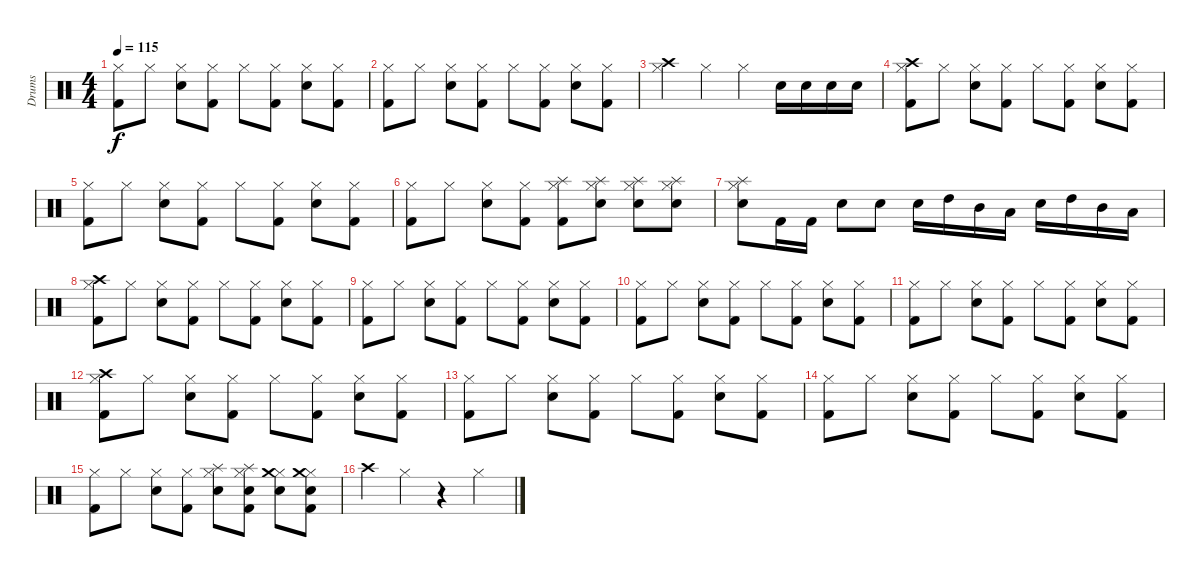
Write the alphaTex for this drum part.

\track ("Drums" "Drums") {instrument percussion}
\staff {score}
\articulation defaults
\ts (4 4)
\tempo 115
\clef neutral
\ks c
("Hi-Hat (closed)" "Kick (hit) 2").8{dy f} "Hi-Hat (closed)".8 ("Hi-Hat (closed)" "Snare (hit) 2").8 ("Hi-Hat (closed)" "Kick (hit) 2").8 "Hi-Hat (closed)".8 ("Hi-Hat (closed)" "Kick (hit) 2").8 ("Hi-Hat (closed)" "Snare (hit) 2").8 ("Hi-Hat (closed)" "Kick (hit) 2").8 |
("Hi-Hat (closed)" "Kick (hit) 2").8 "Hi-Hat (closed)".8 ("Hi-Hat (closed)" "Snare (hit) 2").8 ("Hi-Hat (closed)" "Kick (hit) 2").8 "Hi-Hat (closed)".8 ("Hi-Hat (closed)" "Kick (hit) 2").8 ("Hi-Hat (closed)" "Snare (hit) 2").8 ("Hi-Hat (closed)" "Kick (hit) 2").8 |
("Crash high (hit)" "Hi-Hat (closed)").4 "Hi-Hat (closed)".4 "Hi-Hat (closed)".4 "Snare (hit) 2".16 "Snare (hit) 2".16 "Snare (hit) 2".16 "Snare (hit) 2".16 |
("Hi-Hat (closed)" "Crash high (hit)" "Kick (hit) 2").8 "Hi-Hat (closed)".8 ("Hi-Hat (closed)" "Snare (hit) 2").8 ("Hi-Hat (closed)" "Kick (hit) 2").8 "Hi-Hat (closed)".8 ("Hi-Hat (closed)" "Kick (hit) 2").8 ("Hi-Hat (closed)" "Snare (hit) 2").8 ("Hi-Hat (closed)" "Kick (hit) 2").8 |
("Hi-Hat (closed)" "Kick (hit) 2").8 "Hi-Hat (closed)".8 ("Hi-Hat (closed)" "Snare (hit) 2").8 ("Hi-Hat (closed)" "Kick (hit) 2").8 "Hi-Hat (closed)".8 ("Hi-Hat (closed)" "Kick (hit) 2").8 ("Hi-Hat (closed)" "Snare (hit) 2").8 ("Hi-Hat (closed)" "Kick (hit) 2").8 |
("Hi-Hat (closed)" "Kick (hit) 2").8 "Hi-Hat (closed)".8 ("Hi-Hat (closed)" "Snare (hit) 2").8 ("Hi-Hat (closed)" "Kick (hit) 2").8 ("Hi-Hat (closed)" "Splash (hit)" "Kick (hit) 2").8 ("Hi-Hat (closed)" "Splash (hit)" "Snare (hit) 2").8 ("Hi-Hat (closed)" "Splash (hit)" "Snare (hit) 2").8 ("Hi-Hat (closed)" "Splash (hit)" "Snare (hit) 2").8 |
("Hi-Hat (closed)" "Splash (hit)" "Snare (hit) 2").8 "Kick (hit) 2".16 "Kick (hit) 2".16 "Snare (hit) 2".8 "Snare (hit) 2".8 "Snare (hit) 2".16 "High Tom (hit)".16 "Mid Tom (hit)".16 "Low Tom (hit)".16 "Snare (hit) 2".16 "High Tom (hit)".16 "Mid Tom (hit)".16 "Low Tom (hit)".16 |
("Hi-Hat (closed)" "Crash high (hit)" "Kick (hit) 2").8 "Hi-Hat (closed)".8 ("Hi-Hat (closed)" "Snare (hit) 2").8 ("Hi-Hat (closed)" "Kick (hit) 2").8 "Hi-Hat (closed)".8 ("Hi-Hat (closed)" "Kick (hit) 2").8 ("Hi-Hat (closed)" "Snare (hit) 2").8 ("Hi-Hat (closed)" "Kick (hit) 2").8 |
("Hi-Hat (closed)" "Kick (hit) 2").8 "Hi-Hat (closed)".8 ("Hi-Hat (closed)" "Snare (hit) 2").8 ("Hi-Hat (closed)" "Kick (hit) 2").8 "Hi-Hat (closed)".8 ("Hi-Hat (closed)" "Kick (hit) 2").8 ("Hi-Hat (closed)" "Snare (hit) 2").8 ("Hi-Hat (closed)" "Kick (hit) 2").8 |
("Hi-Hat (closed)" "Kick (hit) 2").8 "Hi-Hat (closed)".8 ("Hi-Hat (closed)" "Snare (hit) 2").8 ("Hi-Hat (closed)" "Kick (hit) 2").8 "Hi-Hat (closed)".8 ("Hi-Hat (closed)" "Kick (hit) 2").8 ("Hi-Hat (closed)" "Snare (hit) 2").8 ("Hi-Hat (closed)" "Kick (hit) 2").8 |
("Hi-Hat (closed)" "Kick (hit) 2").8 "Hi-Hat (closed)".8 ("Hi-Hat (closed)" "Snare (hit) 2").8 ("Hi-Hat (closed)" "Kick (hit) 2").8 "Hi-Hat (closed)".8 ("Hi-Hat (closed)" "Kick (hit) 2").8 ("Hi-Hat (closed)" "Snare (hit) 2").8 ("Hi-Hat (closed)" "Kick (hit) 2").8 |
("Hi-Hat (closed)" "Crash high (hit)" "Kick (hit) 2").8 "Hi-Hat (closed)".8 ("Hi-Hat (closed)" "Snare (hit) 2").8 ("Hi-Hat (closed)" "Kick (hit) 2").8 "Hi-Hat (closed)".8 ("Hi-Hat (closed)" "Kick (hit) 2").8 ("Hi-Hat (closed)" "Snare (hit) 2").8 ("Hi-Hat (closed)" "Kick (hit) 2").8 |
("Hi-Hat (closed)" "Kick (hit) 2").8 "Hi-Hat (closed)".8 ("Hi-Hat (closed)" "Snare (hit) 2").8 ("Hi-Hat (closed)" "Kick (hit) 2").8 "Hi-Hat (closed)".8 ("Hi-Hat (closed)" "Kick (hit) 2").8 ("Hi-Hat (closed)" "Snare (hit) 2").8 ("Hi-Hat (closed)" "Kick (hit) 2").8 |
("Hi-Hat (closed)" "Kick (hit) 2").8 "Hi-Hat (closed)".8 ("Hi-Hat (closed)" "Snare (hit) 2").8 ("Hi-Hat (closed)" "Kick (hit) 2").8 "Hi-Hat (closed)".8 ("Hi-Hat (closed)" "Kick (hit) 2").8 ("Hi-Hat (closed)" "Snare (hit) 2").8 ("Hi-Hat (closed)" "Kick (hit) 2").8 |
("Hi-Hat (closed)" "Kick (hit) 2").8 "Hi-Hat (closed)".8 ("Hi-Hat (closed)" "Snare (hit) 2").8 ("Hi-Hat (closed)" "Kick (hit) 2").8 ("Hi-Hat (closed)" "Splash (hit)" "Snare (hit) 2").8 ("Hi-Hat (closed)" "Splash (hit)" "Snare (hit) 2" "Kick (hit) 2").8 ("Hi-Hat (closed)" "Crash medium (hit)" "Snare (hit) 2").8 ("Hi-Hat (closed)" "Crash medium (hit)" "Snare (hit) 2" "Kick (hit) 2").8 |
"Crash high (hit)".4 "Hi-Hat (closed)".4 r.4 "Hi-Hat (closed)".4
